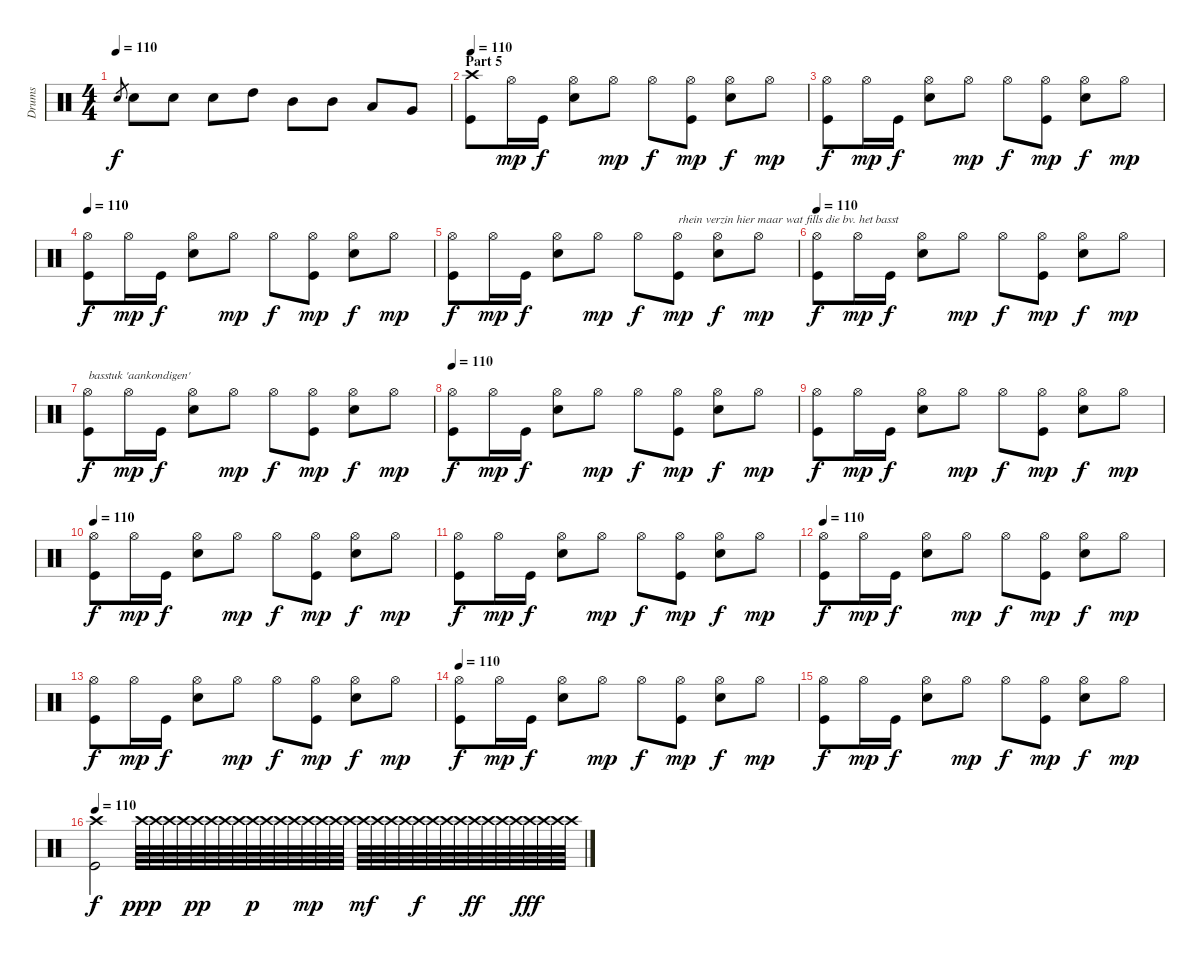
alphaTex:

\track ("Drums" "Drums") {instrument percussion}
\staff {score}
\articulation defaults
\ts (4 4)
\tempo 110
\clef neutral
\ks c "Snare (hit) 2".8{gr dy f} "Snare (hit) 2".8 "Snare (hit) 2".8 "Snare (hit) 2".8 "High Tom (hit)".8 "Mid Tom (hit)".8 "Mid Tom (hit)".8 "Low Tom (hit)".8 "Very Low Tom (hit)".8
|
\section ("" "Part 5")
\tempo 110
("Crash high (hit)" "Kick (hit)").8 "Hi-Hat (open)".16{dy mp} "Kick (hit)".16{dy f} ("Hi-Hat (open)" "Snare (hit) 2").8 "Hi-Hat (open)".8{dy mp} "Hi-Hat (open)".8{dy f} ("Hi-Hat (open)" "Kick (hit)").8{dy mp} ("Hi-Hat (open)" "Snare (hit) 2").8{dy f} "Hi-Hat (open)".8{dy mp} |
("Hi-Hat (open)" "Kick (hit)").8{dy f} "Hi-Hat (open)".16{dy mp} "Kick (hit)".16{dy f} ("Hi-Hat (open)" "Snare (hit) 2").8 "Hi-Hat (open)".8{dy mp} "Hi-Hat (open)".8{dy f} ("Hi-Hat (open)" "Kick (hit)").8{dy mp} ("Hi-Hat (open)" "Snare (hit) 2").8{dy f} "Hi-Hat (open)".8{dy mp} |
\tempo 110
("Hi-Hat (open)" "Kick (hit)").8{dy f} "Hi-Hat (open)".16{dy mp} "Kick (hit)".16{dy f} ("Hi-Hat (open)" "Snare (hit) 2").8 "Hi-Hat (open)".8{dy mp} "Hi-Hat (open)".8{dy f} ("Hi-Hat (open)" "Kick (hit)").8{dy mp} ("Hi-Hat (open)" "Snare (hit) 2").8{dy f} "Hi-Hat (open)".8{dy mp} |
("Hi-Hat (open)" "Kick (hit)").8{dy f} "Hi-Hat (open)".16{dy mp} "Kick (hit)".16{dy f} ("Hi-Hat (open)" "Snare (hit) 2").8 "Hi-Hat (open)".8{dy mp} "Hi-Hat (open)".8{dy f} ("Hi-Hat (open)" "Kick (hit)").8{txt "rhein verzin hier maar wat fills die bv. het basst" dy mp} ("Hi-Hat (open)" "Snare (hit) 2").8{dy f} "Hi-Hat (open)".8{dy mp} |
\tempo 110
("Hi-Hat (open)" "Kick (hit)").8{dy f} "Hi-Hat (open)".16{dy mp} "Kick (hit)".16{dy f} ("Hi-Hat (open)" "Snare (hit) 2").8 "Hi-Hat (open)".8{dy mp} "Hi-Hat (open)".8{dy f} ("Hi-Hat (open)" "Kick (hit)").8{dy mp} ("Hi-Hat (open)" "Snare (hit) 2").8{dy f} "Hi-Hat (open)".8{dy mp} |
("Hi-Hat (open)" "Kick (hit)").8{txt "basstuk 'aankondigen'" dy f} "Hi-Hat (open)".16{dy mp} "Kick (hit)".16{dy f} ("Hi-Hat (open)" "Snare (hit) 2").8 "Hi-Hat (open)".8{dy mp} "Hi-Hat (open)".8{dy f} ("Hi-Hat (open)" "Kick (hit)").8{dy mp} ("Hi-Hat (open)" "Snare (hit) 2").8{dy f} "Hi-Hat (open)".8{dy mp} |
\tempo 110
("Hi-Hat (open)" "Kick (hit)").8{dy f} "Hi-Hat (open)".16{dy mp} "Kick (hit)".16{dy f} ("Hi-Hat (open)" "Snare (hit) 2").8 "Hi-Hat (open)".8{dy mp} "Hi-Hat (open)".8{dy f} ("Hi-Hat (open)" "Kick (hit)").8{dy mp} ("Hi-Hat (open)" "Snare (hit) 2").8{dy f} "Hi-Hat (open)".8{dy mp} |
("Hi-Hat (open)" "Kick (hit)").8{dy f} "Hi-Hat (open)".16{dy mp} "Kick (hit)".16{dy f} ("Hi-Hat (open)" "Snare (hit) 2").8 "Hi-Hat (open)".8{dy mp} "Hi-Hat (open)".8{dy f} ("Hi-Hat (open)" "Kick (hit)").8{dy mp} ("Hi-Hat (open)" "Snare (hit) 2").8{dy f} "Hi-Hat (open)".8{dy mp} |
\tempo 110
("Hi-Hat (open)" "Kick (hit)").8{dy f} "Hi-Hat (open)".16{dy mp} "Kick (hit)".16{dy f} ("Hi-Hat (open)" "Snare (hit) 2").8 "Hi-Hat (open)".8{dy mp} "Hi-Hat (open)".8{dy f} ("Hi-Hat (open)" "Kick (hit)").8{dy mp} ("Hi-Hat (open)" "Snare (hit) 2").8{dy f} "Hi-Hat (open)".8{dy mp} |
("Hi-Hat (open)" "Kick (hit)").8{dy f} "Hi-Hat (open)".16{dy mp} "Kick (hit)".16{dy f} ("Hi-Hat (open)" "Snare (hit) 2").8 "Hi-Hat (open)".8{dy mp} "Hi-Hat (open)".8{dy f} ("Hi-Hat (open)" "Kick (hit)").8{dy mp} ("Hi-Hat (open)" "Snare (hit) 2").8{dy f} "Hi-Hat (open)".8{dy mp} |
\tempo 110
("Hi-Hat (open)" "Kick (hit)").8{dy f} "Hi-Hat (open)".16{dy mp} "Kick (hit)".16{dy f} ("Hi-Hat (open)" "Snare (hit) 2").8 "Hi-Hat (open)".8{dy mp} "Hi-Hat (open)".8{dy f} ("Hi-Hat (open)" "Kick (hit)").8{dy mp} ("Hi-Hat (open)" "Snare (hit) 2").8{dy f} "Hi-Hat (open)".8{dy mp} |
("Hi-Hat (open)" "Kick (hit)").8{dy f} "Hi-Hat (open)".16{dy mp} "Kick (hit)".16{dy f} ("Hi-Hat (open)" "Snare (hit) 2").8 "Hi-Hat (open)".8{dy mp} "Hi-Hat (open)".8{dy f} ("Hi-Hat (open)" "Kick (hit)").8{dy mp} ("Hi-Hat (open)" "Snare (hit) 2").8{dy f} "Hi-Hat (open)".8{dy mp} |
\tempo 110
("Hi-Hat (open)" "Kick (hit)").8{dy f} "Hi-Hat (open)".16{dy mp} "Kick (hit)".16{dy f} ("Hi-Hat (open)" "Snare (hit) 2").8 "Hi-Hat (open)".8{dy mp} "Hi-Hat (open)".8{dy f} ("Hi-Hat (open)" "Kick (hit)").8{dy mp} ("Hi-Hat (open)" "Snare (hit) 2").8{dy f} "Hi-Hat (open)".8{dy mp} |
("Hi-Hat (open)" "Kick (hit)").8{dy f} "Hi-Hat (open)".16{dy mp} "Kick (hit)".16{dy f} ("Hi-Hat (open)" "Snare (hit) 2").8 "Hi-Hat (open)".8{dy mp} "Hi-Hat (open)".8{dy f} ("Hi-Hat (open)" "Kick (hit)").8{dy mp} ("Hi-Hat (open)" "Snare (hit) 2").8{dy f} "Hi-Hat (open)".8{dy mp} |
\tempo 110
("Crash high (hit)" "Kick (hit)").2{dy f} "Crash high (hit)".64{dy ppp} "Crash high (hit)".64 "Crash high (hit)".64 "Crash high (hit)".64 "Crash high (hit)".64{dy pp} "Crash high (hit)".64 "Crash high (hit)".64 "Crash high (hit)".64 "Crash high (hit)".64{dy p} "Crash high (hit)".64 "Crash high (hit)".64 "Crash high (hit)".64 "Crash high (hit)".64{dy mp} "Crash high (hit)".64 "Crash high (hit)".64 "Crash high (hit)".64 "Crash high (hit)".64{dy mf} "Crash high (hit)".64 "Crash high (hit)".64 "Crash high (hit)".64 "Crash high (hit)".64{dy f} "Crash high (hit)".64 "Crash high (hit)".64 "Crash high (hit)".64 "Crash high (hit)".64{dy ff} "Crash high (hit)".64 "Crash high (hit)".64 "Crash high (hit)".64 "Crash high (hit)".64{dy fff} "Crash high (hit)".64 "Crash high (hit)".64 "Crash high (hit)".64
